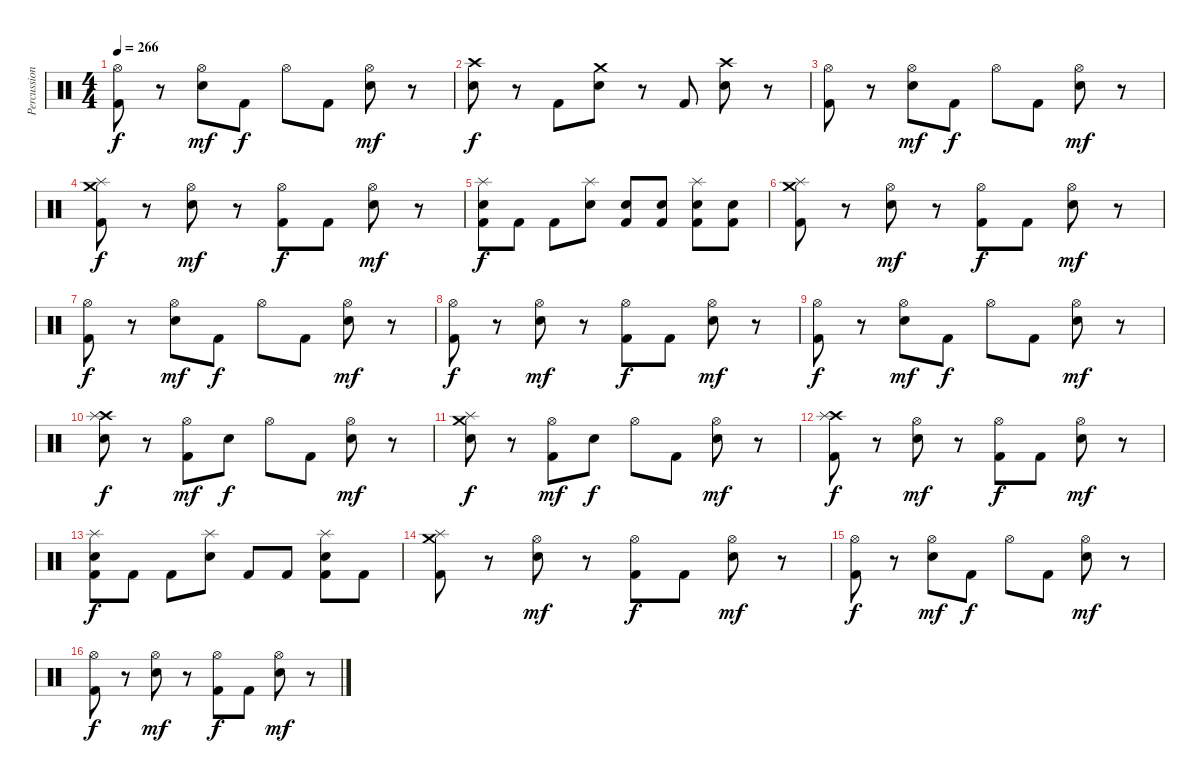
\track ("Percussion" "Percussion") {instrument percussion}
\staff {score}
\articulation defaults
\ts (4 4)
\tempo 266
\clef neutral
\ks c
("Kick (hit) 2" "Hi-Hat (open)").8{dy f} r.8 ("Snare (hit) 2" "Hi-Hat (open)").8{dy mf} "Kick (hit) 2".8{dy f} "Hi-Hat (open)".8 "Kick (hit) 2".8 ("Snare (hit) 2" "Hi-Hat (open)").8{dy mf} r.8 |
("Crash high (hit)" "Snare (hit) 2").8{dy f} r.8 "Kick (hit) 2".8 ("Crash medium (hit)" "Snare (hit) 2").8 r.8 "Kick (hit) 2".8 ("Crash high (hit)" "Snare (hit) 2").8 r.8 |
("Kick (hit) 2" "Hi-Hat (open)").8 r.8 ("Snare (hit) 2" "Hi-Hat (open)").8{dy mf} "Kick (hit) 2".8{dy f} "Hi-Hat (open)".8 "Kick (hit) 2".8 ("Snare (hit) 2" "Hi-Hat (open)").8{dy mf} r.8 |
("Kick (hit) 2" "Splash (hit)" "Crash medium (hit)").8{dy f} r.8 ("Snare (hit) 2" "Hi-Hat (open)").8{dy mf} r.8 ("Kick (hit) 2" "Hi-Hat (open)").8{dy f} "Kick (hit) 2".8 ("Snare (hit) 2" "Hi-Hat (open)").8{dy mf} r.8 |
("Snare (hit) 2" "Splash (hit)" "Kick (hit) 2").8{dy f} "Kick (hit) 2".8 "Kick (hit) 2".8 ("Snare (hit) 2" "Splash (hit)").8 ("Snare (hit) 2" "Kick (hit) 2").8 ("Snare (hit) 2" "Kick (hit) 2").8 ("Snare (hit) 2" "Kick (hit) 2" "Splash (hit)").8 ("Snare (hit) 2" "Kick (hit) 2").8 |
("Crash medium (hit)" "Splash (hit)" "Kick (hit) 2").8 r.8 ("Snare (hit) 2" "Hi-Hat (open)").8{dy mf} r.8 ("Kick (hit) 2" "Hi-Hat (open)").8{dy f} "Kick (hit) 2".8 ("Snare (hit) 2" "Hi-Hat (open)").8{dy mf} r.8 |
("Kick (hit) 2" "Hi-Hat (open)").8{dy f} r.8 ("Snare (hit) 2" "Hi-Hat (open)").8{dy mf} "Kick (hit) 2".8{dy f} "Hi-Hat (open)".8 "Kick (hit) 2".8 ("Snare (hit) 2" "Hi-Hat (open)").8{dy mf} r.8 |
("Hi-Hat (open)" "Kick (hit) 2").8{dy f} r.8 ("Snare (hit) 2" "Hi-Hat (open)").8{dy mf} r.8 ("Kick (hit) 2" "Hi-Hat (open)").8{dy f} "Kick (hit) 2".8 ("Snare (hit) 2" "Hi-Hat (open)").8{dy mf} r.8 |
("Kick (hit) 2" "Hi-Hat (open)").8{dy f} r.8 ("Snare (hit) 2" "Hi-Hat (open)").8{dy mf} "Kick (hit) 2".8{dy f} "Hi-Hat (open)".8 "Kick (hit) 2".8 ("Snare (hit) 2" "Hi-Hat (open)").8{dy mf} r.8 |
("Snare (hit) 2" "Crash high (hit)" "Splash (hit)").8{dy f} r.8 ("Kick (hit) 2" "Hi-Hat (open)").8{dy mf} "Snare (hit) 2".8{dy f} "Hi-Hat (open)".8 "Kick (hit) 2".8 ("Snare (hit) 2" "Hi-Hat (open)").8{dy mf} r.8 |
("Snare (hit) 2" "Splash (hit)" "Crash medium (hit)").8{dy f} r.8 ("Kick (hit) 2" "Hi-Hat (open)").8{dy mf} "Snare (hit) 2".8{dy f} "Hi-Hat (open)".8 "Kick (hit) 2".8 ("Snare (hit) 2" "Hi-Hat (open)").8{dy mf} r.8 |
("Crash high (hit)" "Splash (hit)" "Kick (hit) 2").8{dy f} r.8 ("Snare (hit) 2" "Hi-Hat (open)").8{dy mf} r.8 ("Kick (hit) 2" "Hi-Hat (open)").8{dy f} "Kick (hit) 2".8 ("Snare (hit) 2" "Hi-Hat (open)").8{dy mf} r.8 |
("Snare (hit) 2" "Kick (hit) 2" "Splash (hit)").8{dy f} "Kick (hit) 2".8 "Kick (hit) 2".8 ("Snare (hit) 2" "Splash (hit)").8 "Kick (hit) 2".8 "Kick (hit) 2".8 ("Snare (hit) 2" "Kick (hit) 2" "Splash (hit)").8 "Kick (hit) 2".8 |
("Crash medium (hit)" "Splash (hit)" "Kick (hit) 2").8 r.8 ("Snare (hit) 2" "Hi-Hat (open)").8{dy mf} r.8 ("Kick (hit) 2" "Hi-Hat (open)").8{dy f} "Kick (hit) 2".8 ("Snare (hit) 2" "Hi-Hat (open)").8{dy mf} r.8 |
("Kick (hit) 2" "Hi-Hat (open)").8{dy f} r.8 ("Snare (hit) 2" "Hi-Hat (open)").8{dy mf} "Kick (hit) 2".8{dy f} "Hi-Hat (open)".8 "Kick (hit) 2".8 ("Snare (hit) 2" "Hi-Hat (open)").8{dy mf} r.8 |
("Hi-Hat (open)" "Kick (hit) 2").8{dy f} r.8 ("Snare (hit) 2" "Hi-Hat (open)").8{dy mf} r.8 ("Kick (hit) 2" "Hi-Hat (open)").8{dy f} "Kick (hit) 2".8 ("Snare (hit) 2" "Hi-Hat (open)").8{dy mf} r.8
